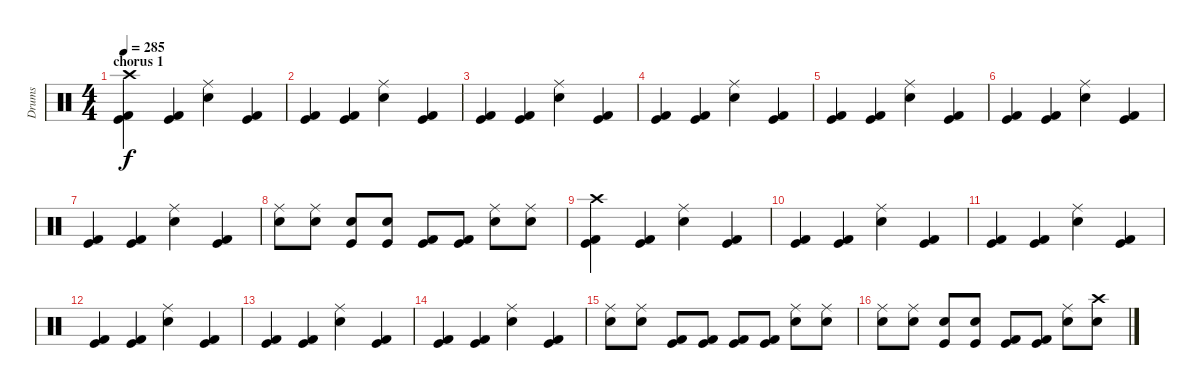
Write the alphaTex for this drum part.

\track ("Drums" "Drums") {instrument percussion}
\staff {score}
\articulation defaults
\ts (4 4)
\section ("" "chorus 1")
\tempo 285
\clef neutral
\ks c
("Crash high (hit)" "Kick (hit)" "Kick (hit) 2").4{dy f} ("Kick (hit)" "Kick (hit) 2").4 ("Ride (middle)" "Electric Snare (hit)").4 ("Kick (hit)" "Kick (hit) 2").4 |
("Kick (hit)" "Kick (hit) 2").4 ("Kick (hit)" "Kick (hit) 2").4 ("Ride (middle)" "Electric Snare (hit)").4 ("Kick (hit)" "Kick (hit) 2").4 |
("Kick (hit)" "Kick (hit) 2").4 ("Kick (hit)" "Kick (hit) 2").4 ("Ride (middle)" "Electric Snare (hit)").4 ("Kick (hit)" "Kick (hit) 2").4 |
("Kick (hit)" "Kick (hit) 2").4 ("Kick (hit)" "Kick (hit) 2").4 ("Ride (middle)" "Electric Snare (hit)").4 ("Kick (hit)" "Kick (hit) 2").4 |
("Kick (hit)" "Kick (hit) 2").4 ("Kick (hit)" "Kick (hit) 2").4 ("Ride (middle)" "Electric Snare (hit)").4 ("Kick (hit)" "Kick (hit) 2").4 |
("Kick (hit)" "Kick (hit) 2").4 ("Kick (hit)" "Kick (hit) 2").4 ("Ride (middle)" "Electric Snare (hit)").4 ("Kick (hit)" "Kick (hit) 2").4 |
("Kick (hit)" "Kick (hit) 2").4 ("Kick (hit)" "Kick (hit) 2").4 ("Ride (middle)" "Electric Snare (hit)").4 ("Kick (hit)" "Kick (hit) 2").4 |
("Ride (middle)" "Electric Snare (hit)").8 ("Ride (middle)" "Electric Snare (hit)").8 ("Kick (hit)" "Snare (hit) 2").8 ("Kick (hit)" "Snare (hit) 2").8 ("Kick (hit)" "Kick (hit) 2").8 ("Kick (hit)" "Kick (hit) 2").8 ("Ride (middle)" "Electric Snare (hit)").8 ("Ride (middle)" "Electric Snare (hit)").8 |
("Crash high (hit)" "Kick (hit)" "Kick (hit) 2").4 ("Kick (hit)" "Kick (hit) 2").4 ("Ride (middle)" "Electric Snare (hit)").4 ("Kick (hit)" "Kick (hit) 2").4 |
("Kick (hit)" "Kick (hit) 2").4 ("Kick (hit)" "Kick (hit) 2").4 ("Ride (middle)" "Electric Snare (hit)").4 ("Kick (hit)" "Kick (hit) 2").4 |
("Kick (hit)" "Kick (hit) 2").4 ("Kick (hit)" "Kick (hit) 2").4 ("Ride (middle)" "Electric Snare (hit)").4 ("Kick (hit)" "Kick (hit) 2").4 |
("Kick (hit)" "Kick (hit) 2").4 ("Kick (hit)" "Kick (hit) 2").4 ("Ride (middle)" "Electric Snare (hit)").4 ("Kick (hit)" "Kick (hit) 2").4 |
("Kick (hit)" "Kick (hit) 2").4 ("Kick (hit)" "Kick (hit) 2").4 ("Ride (middle)" "Electric Snare (hit)").4 ("Kick (hit)" "Kick (hit) 2").4 |
("Kick (hit)" "Kick (hit) 2").4 ("Kick (hit)" "Kick (hit) 2").4 ("Ride (middle)" "Electric Snare (hit)").4 ("Kick (hit)" "Kick (hit) 2").4 |
("Ride (middle)" "Electric Snare (hit)").8 ("Ride (middle)" "Electric Snare (hit)").8 ("Kick (hit)" "Kick (hit) 2").8 ("Kick (hit)" "Kick (hit) 2").8 ("Kick (hit)" "Kick (hit) 2").8 ("Kick (hit)" "Kick (hit) 2").8 ("Ride (middle)" "Electric Snare (hit)").8 ("Ride (middle)" "Electric Snare (hit)").8 |
("Ride (middle)" "Electric Snare (hit)").8 ("Ride (middle)" "Electric Snare (hit)").8 ("Kick (hit)" "Snare (hit) 2").8 ("Kick (hit)" "Snare (hit) 2").8 ("Kick (hit)" "Kick (hit) 2").8 ("Kick (hit)" "Kick (hit) 2").8 ("Ride (middle)" "Electric Snare (hit)").8 ("Crash high (hit)" "Electric Snare (hit)").8
